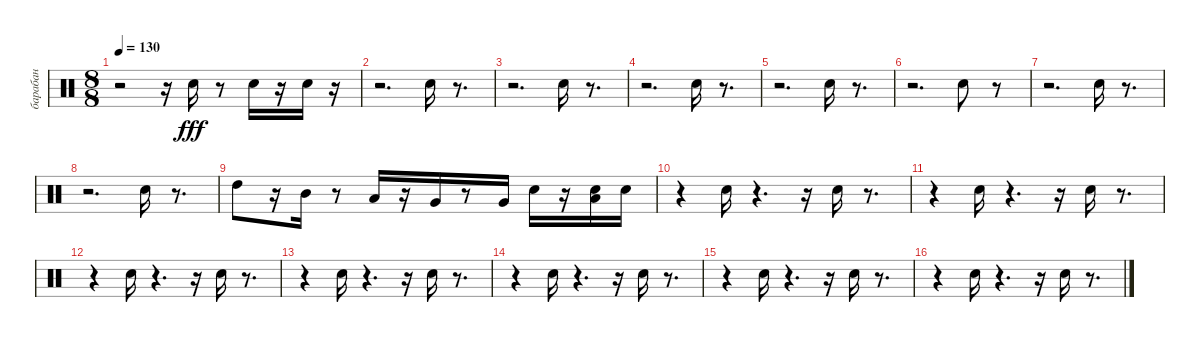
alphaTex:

\track ("барабан" "барабан") {instrument percussion}
\staff {score}
\articulation defaults
\ts (8 8)
\tempo 130
\clef neutral
\ks c
r.2{dy fff} r.16 "Snare (hit) 2".16 r.8 "Snare (hit) 2".16 r.16 "Snare (hit) 2".16 r.16 |
r.2{d} "Snare (hit) 2".16 r.8{d} |
r.2{d} "Snare (hit) 2".16 r.8{d} |
r.2{d} "Snare (hit) 2".16 r.8{d} |
r.2{d} "Snare (hit) 2".16 r.8{d} |
r.2{d} "Snare (hit) 2".8 r.8 |
r.2{d} "Snare (hit) 2".16 r.8{d} |
r.2{d} "Snare (hit) 2".16 r.8{d} |
"High Tom (hit)".8 r.16 "Mid Tom (hit)".16 r.8 "Low Tom (hit)".16 r.16 "Very Low Tom (hit)".16 r.8 "Very Low Tom (hit)".16 "Snare (hit) 2".16 r.16 ("Snare (hit) 2" "Low Floor Tom (hit)").16 "Snare (hit) 2".16 |
r.4 "Snare (hit) 2".16 r.4{d} r.16 "Snare (hit) 2".16 r.8{d} |
r.4 "Snare (hit) 2".16 r.4{d} r.16 "Snare (hit) 2".16 r.8{d} |
r.4 "Snare (hit) 2".16 r.4{d} r.16 "Snare (hit) 2".16 r.8{d} |
r.4 "Snare (hit) 2".16 r.4{d} r.16 "Snare (hit) 2".16 r.8{d} |
r.4 "Snare (hit) 2".16 r.4{d} r.16 "Snare (hit) 2".16 r.8{d} |
r.4 "Snare (hit) 2".16 r.4{d} r.16 "Snare (hit) 2".16 r.8{d} |
r.4 "Snare (hit) 2".16 r.4{d} r.16 "Snare (hit) 2".16 r.8{d}
